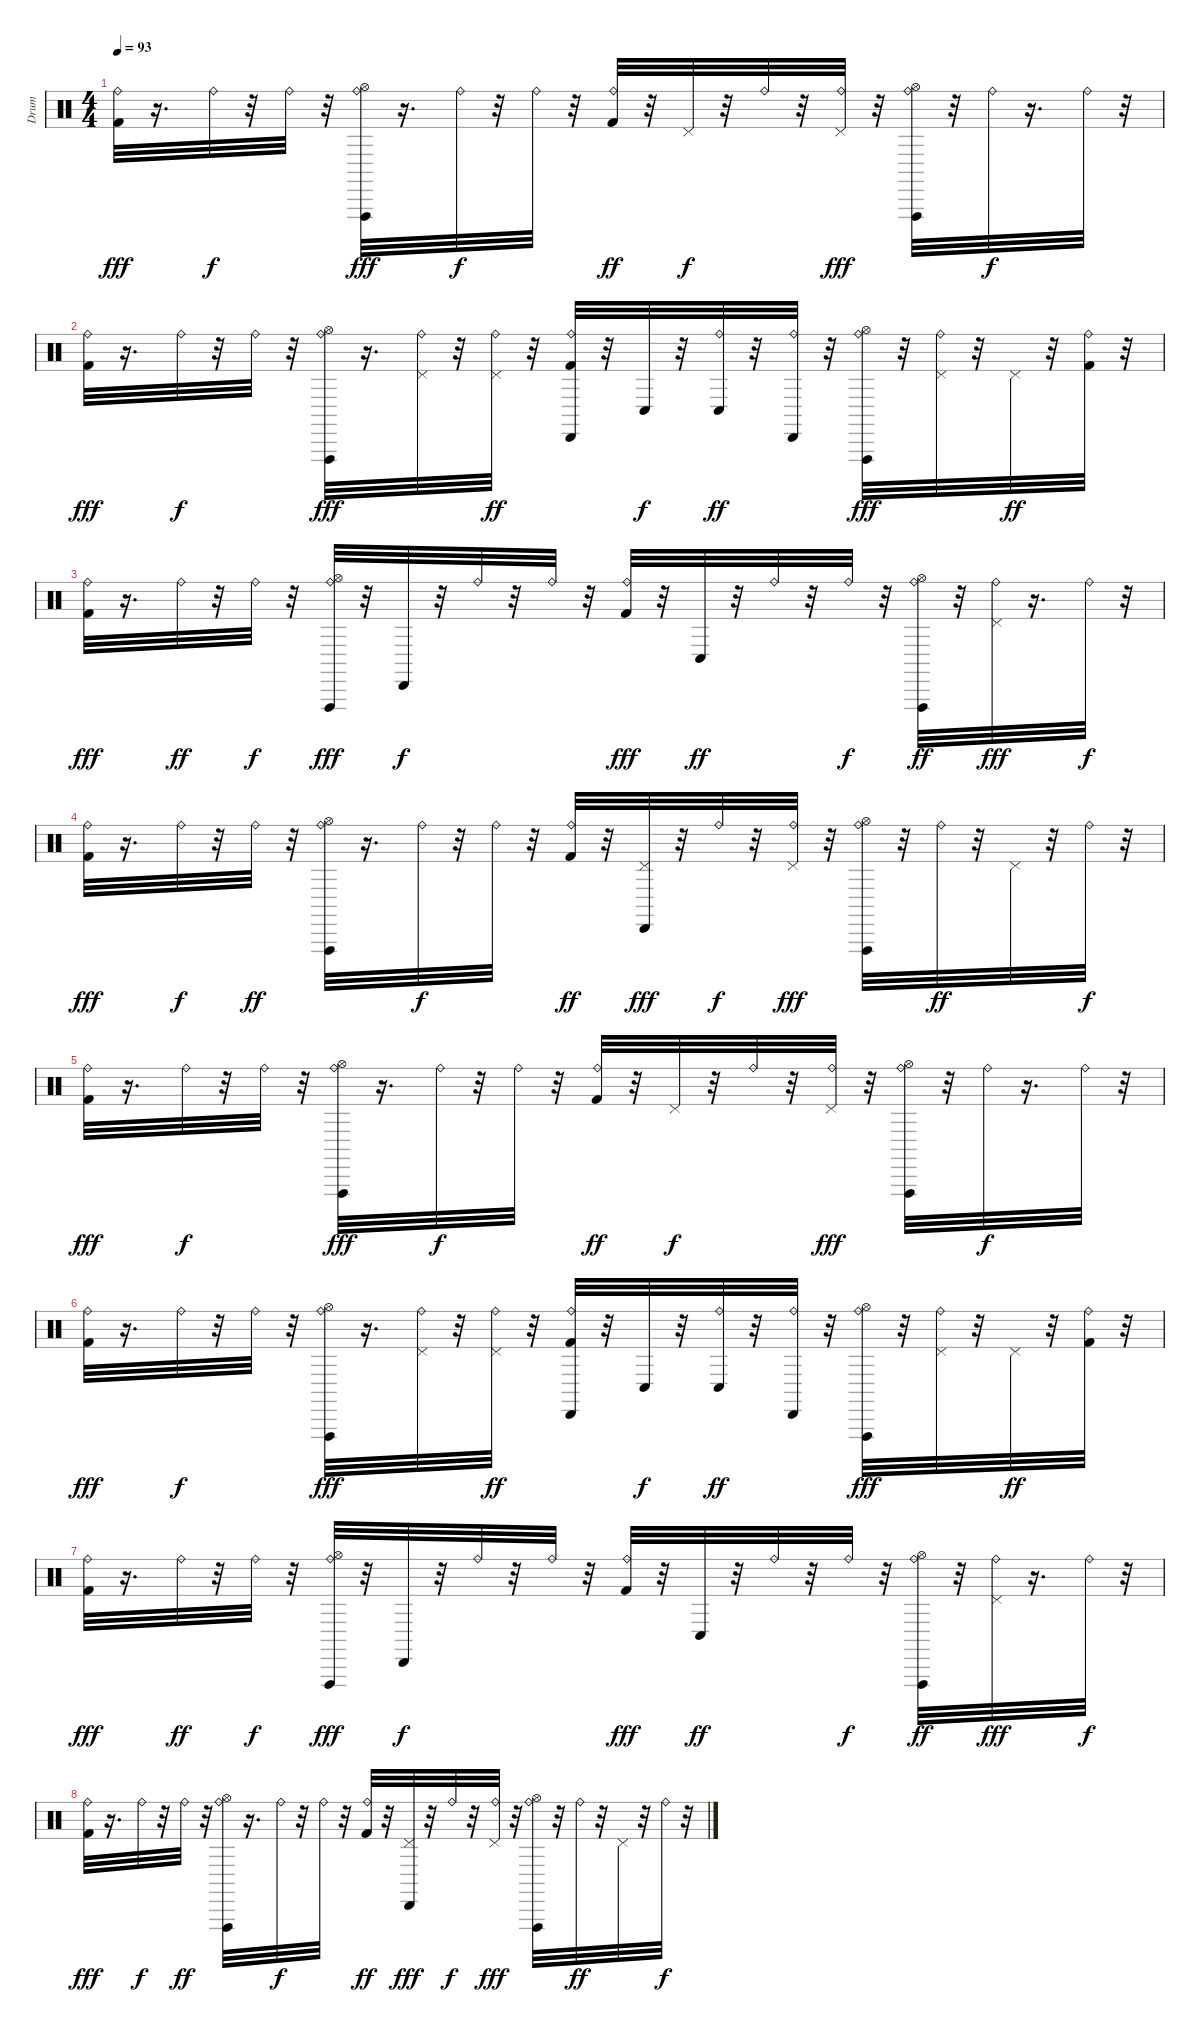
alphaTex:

\track ("Drum" "Drum") {instrument percussion}
\staff {score}
\articulation defaults
\ts (4 4)
\tempo 93
\clef neutral
\ks c
("Kick (hit) 2" "Ride (bell)").32{dy fff} r.16{d} "Ride (bell)".32{dy f} r.32 "Ride (bell)".32 r.32 ("Ride (bell)" "Vibraslap (hit)" "Hi-Hat (open)").32{dy fff} r.16{d} "Ride (bell)".32{dy f} r.32 "Ride (bell)".32 r.32 ("Kick (hit) 2" "Ride (bell)").32{dy ff} r.32 "Pedal Hi-Hat (hit)".32{dy f} r.32 "Ride (bell)".32 r.32 ("Ride (bell)" "Pedal Hi-Hat (hit)").32{dy fff} r.32 ("Ride (bell)" "Vibraslap (hit)" "Hi-Hat (open)").32 r.32 "Ride (bell)".32{dy f} r.16{d} "Ride (bell)".32 r.32 |
("Kick (hit) 2" "Ride (bell)").32{dy fff} r.16{d} "Ride (bell)".32{dy f} r.32 "Ride (bell)".32 r.32 ("Ride (bell)" "Vibraslap (hit)" "Hi-Hat (open)").32{dy fff} r.16{d} ("Ride (bell)" "Pedal Hi-Hat (hit)").32 r.32 ("Ride (bell)" "Pedal Hi-Hat (hit)").32{dy ff} r.32 ("Cabasa (hit)" "Kick (hit) 2" "Ride (bell)").32 r.32 "Conga low (hit)".32{dy f} r.32 ("Conga low (hit)" "Ride (bell)").32{dy ff} r.32 ("Cabasa (hit)" "Ride (bell)").32 r.32 ("Ride (bell)" "Vibraslap (hit)" "Hi-Hat (open)").32{dy fff} r.32 ("Ride (bell)" "Pedal Hi-Hat (hit)").32 r.32 "Pedal Hi-Hat (hit)".32{dy ff} r.32 ("Kick (hit) 2" "Ride (bell)").32 r.32 |
("Kick (hit) 2" "Ride (bell)").32{dy fff} r.16{d} "Ride (bell)".32{dy ff} r.32 "Ride (bell)".32{dy f} r.32 ("Ride (bell)" "Vibraslap (hit)" "Hi-Hat (open)").32{dy fff} r.32 "Cabasa (hit)".32{dy f} r.32 "Ride (bell)".32 r.32 "Ride (bell)".32 r.32 ("Kick (hit) 2" "Ride (bell)").32{dy fff} r.32 "Conga low (hit)".32{dy ff} r.32 "Ride (bell)".32 r.32 "Ride (bell)".32{dy f} r.32 ("Ride (bell)" "Vibraslap (hit)" "Hi-Hat (open)").32{dy ff} r.32 ("Ride (bell)" "Pedal Hi-Hat (hit)").32{dy fff} r.16{d} "Ride (bell)".32{dy f} r.32 |
("Kick (hit) 2" "Ride (bell)").32{dy fff} r.16{d} "Ride (bell)".32{dy f} r.32 "Ride (bell)".32{dy ff} r.32 ("Ride (bell)" "Vibraslap (hit)" "Hi-Hat (open)").32 r.16{d} "Ride (bell)".32{dy f} r.32 "Ride (bell)".32 r.32 ("Kick (hit) 2" "Ride (bell)").32{dy ff} r.32 ("Cabasa (hit)" "Pedal Hi-Hat (hit)").32{dy fff} r.32 "Ride (bell)".32{dy f} r.32 ("Ride (bell)" "Pedal Hi-Hat (hit)").32{dy fff} r.32 ("Ride (bell)" "Vibraslap (hit)" "Hi-Hat (open)").32 r.32 "Ride (bell)".32{dy ff} r.32 "Pedal Hi-Hat (hit)".32 r.32 "Ride (bell)".32{dy f} r.32 |
("Kick (hit) 2" "Ride (bell)").32{dy fff} r.16{d} "Ride (bell)".32{dy f} r.32 "Ride (bell)".32 r.32 ("Ride (bell)" "Vibraslap (hit)" "Hi-Hat (open)").32{dy fff} r.16{d} "Ride (bell)".32{dy f} r.32 "Ride (bell)".32 r.32 ("Kick (hit) 2" "Ride (bell)").32{dy ff} r.32 "Pedal Hi-Hat (hit)".32{dy f} r.32 "Ride (bell)".32 r.32 ("Ride (bell)" "Pedal Hi-Hat (hit)").32{dy fff} r.32 ("Ride (bell)" "Vibraslap (hit)" "Hi-Hat (open)").32 r.32 "Ride (bell)".32{dy f} r.16{d} "Ride (bell)".32 r.32 |
("Kick (hit) 2" "Ride (bell)").32{dy fff} r.16{d} "Ride (bell)".32{dy f} r.32 "Ride (bell)".32 r.32 ("Ride (bell)" "Vibraslap (hit)" "Hi-Hat (open)").32{dy fff} r.16{d} ("Ride (bell)" "Pedal Hi-Hat (hit)").32 r.32 ("Ride (bell)" "Pedal Hi-Hat (hit)").32{dy ff} r.32 ("Cabasa (hit)" "Kick (hit) 2" "Ride (bell)").32 r.32 "Conga low (hit)".32{dy f} r.32 ("Conga low (hit)" "Ride (bell)").32{dy ff} r.32 ("Cabasa (hit)" "Ride (bell)").32 r.32 ("Ride (bell)" "Vibraslap (hit)" "Hi-Hat (open)").32{dy fff} r.32 ("Ride (bell)" "Pedal Hi-Hat (hit)").32 r.32 "Pedal Hi-Hat (hit)".32{dy ff} r.32 ("Kick (hit) 2" "Ride (bell)").32 r.32 |
("Kick (hit) 2" "Ride (bell)").32{dy fff} r.16{d} "Ride (bell)".32{dy ff} r.32 "Ride (bell)".32{dy f} r.32 ("Ride (bell)" "Vibraslap (hit)" "Hi-Hat (open)").32{dy fff} r.32 "Cabasa (hit)".32{dy f} r.32 "Ride (bell)".32 r.32 "Ride (bell)".32 r.32 ("Kick (hit) 2" "Ride (bell)").32{dy fff} r.32 "Conga low (hit)".32{dy ff} r.32 "Ride (bell)".32 r.32 "Ride (bell)".32{dy f} r.32 ("Ride (bell)" "Vibraslap (hit)" "Hi-Hat (open)").32{dy ff} r.32 ("Ride (bell)" "Pedal Hi-Hat (hit)").32{dy fff} r.16{d} "Ride (bell)".32{dy f} r.32 |
("Kick (hit) 2" "Ride (bell)").32{dy fff} r.16{d} "Ride (bell)".32{dy f} r.32 "Ride (bell)".32{dy ff} r.32 ("Ride (bell)" "Vibraslap (hit)" "Hi-Hat (open)").32 r.16{d} "Ride (bell)".32{dy f} r.32 "Ride (bell)".32 r.32 ("Kick (hit) 2" "Ride (bell)").32{dy ff} r.32 ("Cabasa (hit)" "Pedal Hi-Hat (hit)").32{dy fff} r.32 "Ride (bell)".32{dy f} r.32 ("Ride (bell)" "Pedal Hi-Hat (hit)").32{dy fff} r.32 ("Ride (bell)" "Vibraslap (hit)" "Hi-Hat (open)").32 r.32 "Ride (bell)".32{dy ff} r.32 "Pedal Hi-Hat (hit)".32 r.32 "Ride (bell)".32{dy f} r.32
